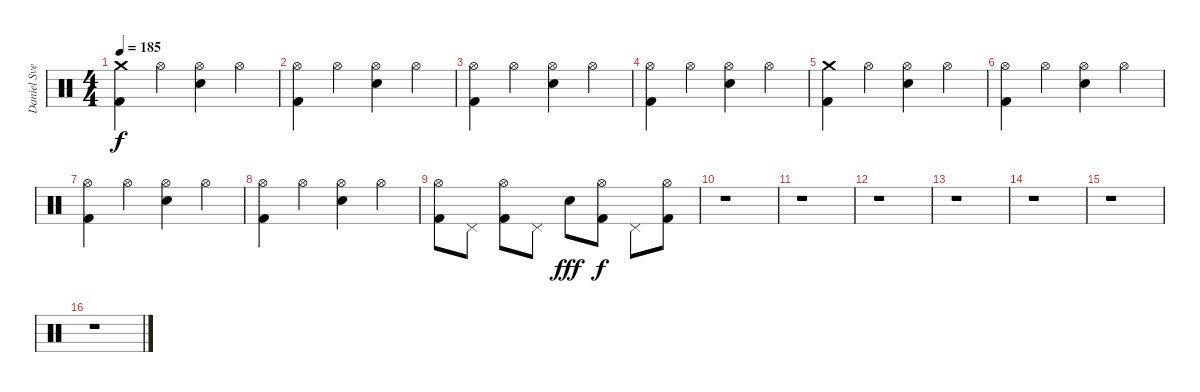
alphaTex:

\track ("Daniel Svensson" "Daniel Sve") {instrument percussion}
\staff {score}
\articulation defaults
\ts (4 4)
\tempo 185
\clef neutral
\ks c
("Kick (hit) 2" "Crash medium (hit)").4{dy f} "Hi-Hat (open)".4 ("Electric Snare (hit)" "Hi-Hat (open)").4 "Hi-Hat (open)".4 |
("Kick (hit) 2" "Hi-Hat (open)").4 "Hi-Hat (open)".4 ("Electric Snare (hit)" "Hi-Hat (open)").4 "Hi-Hat (open)".4 |
("Kick (hit) 2" "Hi-Hat (open)").4 "Hi-Hat (open)".4 ("Electric Snare (hit)" "Hi-Hat (open)").4 "Hi-Hat (open)".4 |
("Kick (hit) 2" "Hi-Hat (open)").4 "Hi-Hat (open)".4 ("Electric Snare (hit)" "Hi-Hat (open)").4 "Hi-Hat (open)".4 |
("Kick (hit) 2" "Crash medium (hit)").4 "Hi-Hat (open)".4 ("Electric Snare (hit)" "Hi-Hat (open)").4 "Hi-Hat (open)".4 |
("Kick (hit) 2" "Hi-Hat (open)").4 "Hi-Hat (open)".4 ("Electric Snare (hit)" "Hi-Hat (open)").4 "Hi-Hat (open)".4 |
("Kick (hit) 2" "Hi-Hat (open)").4 "Hi-Hat (open)".4 ("Electric Snare (hit)" "Hi-Hat (open)").4 "Hi-Hat (open)".4 |
("Kick (hit) 2" "Hi-Hat (open)").4 "Hi-Hat (open)".4 ("Electric Snare (hit)" "Hi-Hat (open)").4 "Hi-Hat (open)".4 |
("Kick (hit) 2" "Hi-Hat (open)").8 "Pedal Hi-Hat (hit)".8 ("Kick (hit) 2" "Hi-Hat (open)").8 "Pedal Hi-Hat (hit)".8 "Electric Snare (hit)".8{dy fff} ("Kick (hit) 2" "Hi-Hat (open)").8{dy f} "Pedal Hi-Hat (hit)".8 ("Kick (hit) 2" "Hi-Hat (open)").8 |
r.1 |
r.1 |
r.1 |
r.1 |
r.1 |
r.1 |
r.1
